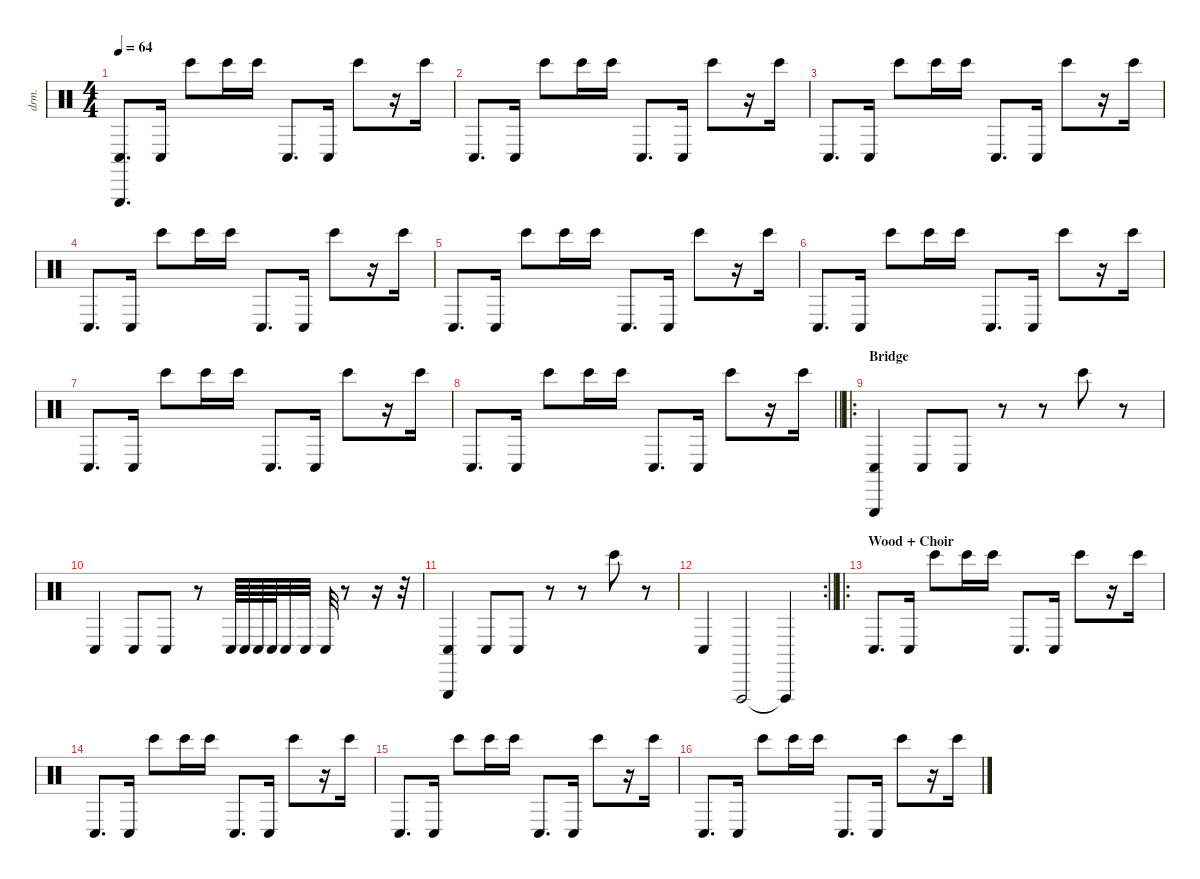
\defaultSystemsLayout 4
\hideDynamics
\bracketExtendMode nobrackets
\track ("Percussions" "drm.") {instrument percussion}
\staff {score}
\articulation defaults
\ts (4 4)
\tempo 64
\clef neutral
\ks c
("Conga low (hit)" "Triangle (hit)").8{d dy f} "Conga low (hit)".16 "Bongo High (hit)".8 "Bongo High (hit)".16 "Bongo High (hit)".16 "Conga low (hit)".8{d} "Conga low (hit)".16 "Bongo High (hit)".8 r.16 "Bongo High (hit)".16 |
"Conga low (hit)".8{d} "Conga low (hit)".16 "Bongo High (hit)".8 "Bongo High (hit)".16 "Bongo High (hit)".16 "Conga low (hit)".8{d} "Conga low (hit)".16 "Bongo High (hit)".8 r.16 "Bongo High (hit)".16 |
"Conga low (hit)".8{d} "Conga low (hit)".16 "Bongo High (hit)".8 "Bongo High (hit)".16 "Bongo High (hit)".16 "Conga low (hit)".8{d} "Conga low (hit)".16 "Bongo High (hit)".8 r.16 "Bongo High (hit)".16 |
"Conga low (hit)".8{d} "Conga low (hit)".16 "Bongo High (hit)".8 "Bongo High (hit)".16 "Bongo High (hit)".16 "Conga low (hit)".8{d} "Conga low (hit)".16 "Bongo High (hit)".8 r.16 "Bongo High (hit)".16 |
"Conga low (hit)".8{d} "Conga low (hit)".16 "Bongo High (hit)".8 "Bongo High (hit)".16 "Bongo High (hit)".16 "Conga low (hit)".8{d} "Conga low (hit)".16 "Bongo High (hit)".8 r.16 "Bongo High (hit)".16 |
"Conga low (hit)".8{d} "Conga low (hit)".16 "Bongo High (hit)".8 "Bongo High (hit)".16 "Bongo High (hit)".16 "Conga low (hit)".8{d} "Conga low (hit)".16 "Bongo High (hit)".8 r.16 "Bongo High (hit)".16 |
"Conga low (hit)".8{d} "Conga low (hit)".16 "Bongo High (hit)".8 "Bongo High (hit)".16 "Bongo High (hit)".16 "Conga low (hit)".8{d} "Conga low (hit)".16 "Bongo High (hit)".8 r.16 "Bongo High (hit)".16 |
\barLineRight lightlight "Conga low (hit)".8{d} "Conga low (hit)".16 "Bongo High (hit)".8 "Bongo High (hit)".16 "Bongo High (hit)".16 "Conga low (hit)".8{d} "Conga low (hit)".16 "Bongo High (hit)".8
r.16 "Bongo High (hit)".16 |
\ro
\section ("" "Bridge")
("Conga low (hit)" "Triangle (hit)").4 "Conga low (hit)".8 "Conga low (hit)".8 r.8 r.8 "Bongo High (hit)".8 r.8 |
"Conga low (hit)".4 "Conga low (hit)".8 "Conga low (hit)".8 r.8 "Conga low (hit)".64{dy pp} "Conga low (hit)".64{dy p} "Conga low (hit)".64{dy mp} "Conga low (hit)".64{dy mf} "Conga low (hit)".32{dy f} "Conga low (hit)".32 "Conga low (hit)".32{dy mp} r.8 r.16 r.32 |
("Conga low (hit)" "Triangle (hit)").4{dy f} "Conga low (hit)".8 "Conga low (hit)".8 r.8 r.8 "Bongo High (hit)".8 r.8 |
\rc 2
\barLineRight lightlight "Conga low (hit)".4{dy mf} "Vibraslap (hit)".2 "Vibraslap (hit)"{t}.4{dy f}
|
\ro
\section ("" "Wood + Choir")
"Conga low (hit)".8{d} "Conga low (hit)".16 "Bongo High (hit)".8 "Bongo High (hit)".16 "Bongo High (hit)".16 "Conga low (hit)".8{d} "Conga low (hit)".16 "Bongo High (hit)".8 r.16 "Bongo High (hit)".16 |
"Conga low (hit)".8{d} "Conga low (hit)".16 "Bongo High (hit)".8 "Bongo High (hit)".16 "Bongo High (hit)".16 "Conga low (hit)".8{d} "Conga low (hit)".16 "Bongo High (hit)".8 r.16 "Bongo High (hit)".16 |
"Conga low (hit)".8{d} "Conga low (hit)".16 "Bongo High (hit)".8 "Bongo High (hit)".16 "Bongo High (hit)".16 "Conga low (hit)".8{d} "Conga low (hit)".16 "Bongo High (hit)".8 r.16 "Bongo High (hit)".16 |
"Conga low (hit)".8{d} "Conga low (hit)".16 "Bongo High (hit)".8 "Bongo High (hit)".16 "Bongo High (hit)".16 "Conga low (hit)".8{d} "Conga low (hit)".16 "Bongo High (hit)".8 r.16 "Bongo High (hit)".16
